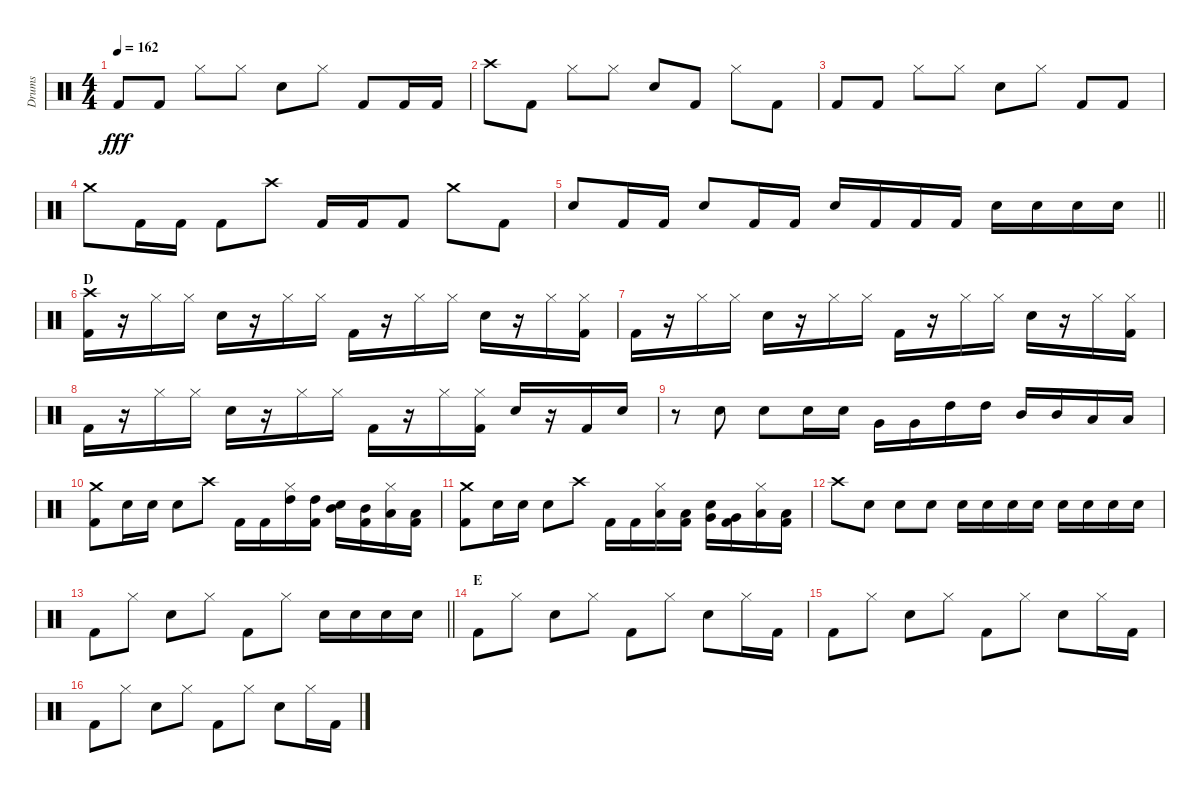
\track ("Drums" "Drums") {instrument percussion}
\staff {score}
\articulation defaults
\ts (4 4)
\tempo 162
\clef neutral
\ks c "Kick (hit) 2".8{dy fff} "Kick (hit) 2".8 "Hi-Hat (closed)".8 "Hi-Hat (closed)".8 "Electric Snare (hit)".8 "Hi-Hat (closed)".8 "Kick (hit) 2".8 "Kick (hit) 2".16 "Kick (hit) 2".16
|
"Crash high (hit)".8 "Kick (hit) 2".8 "Hi-Hat (closed)".8 "Hi-Hat (closed)".8 "Electric Snare (hit)".8 "Kick (hit) 2".8 "Hi-Hat (closed)".8 "Kick (hit) 2".8 |
"Kick (hit) 2".8 "Kick (hit) 2".8 "Hi-Hat (closed)".8 "Hi-Hat (closed)".8 "Electric Snare (hit)".8 "Hi-Hat (closed)".8 "Kick (hit) 2".8 "Kick (hit) 2".8 |
"Crash medium (hit)".8 "Kick (hit) 2".16 "Kick (hit) 2".16 "Kick (hit) 2".8 "Crash high (hit)".8 "Kick (hit) 2".16 "Kick (hit) 2".16 "Kick (hit) 2".8 "Crash medium (hit)".8 "Kick (hit) 2".8 |
\barLineRight lightlight "Electric Snare (hit)".8 "Kick (hit) 2".16 "Kick (hit) 2".16 "Electric Snare (hit)".8 "Kick (hit) 2".16 "Kick (hit) 2".16 "Electric Snare (hit)".16 "Kick (hit) 2".16 "Kick (hit) 2".16 "Kick (hit) 2".16 "Electric Snare (hit)".16 "Electric Snare (hit)".16 "Electric Snare (hit)".16 "Electric Snare (hit)".16
|
\section ("" "D")
("Crash high (hit)" "Kick (hit) 2").16 r.16 "Hi-Hat (closed)".16 "Hi-Hat (closed)".16 "Electric Snare (hit)".16 r.16 "Hi-Hat (closed)".16 "Hi-Hat (closed)".16 "Kick (hit) 2".16 r.16 "Hi-Hat (closed)".16 "Hi-Hat (closed)".16 "Electric Snare (hit)".16 r.16 "Hi-Hat (closed)".16 ("Hi-Hat (closed)" "Kick (hit) 2").16 |
"Kick (hit) 2".16 r.16 "Hi-Hat (closed)".16 "Hi-Hat (closed)".16 "Electric Snare (hit)".16 r.16 "Hi-Hat (closed)".16 "Hi-Hat (closed)".16 "Kick (hit) 2".16 r.16 "Hi-Hat (closed)".16 "Hi-Hat (closed)".16 "Electric Snare (hit)".16 r.16 "Hi-Hat (closed)".16 ("Hi-Hat (closed)" "Kick (hit) 2").16 |
"Kick (hit) 2".16 r.16 "Hi-Hat (closed)".16 "Hi-Hat (closed)".16 "Electric Snare (hit)".16 r.16 "Hi-Hat (closed)".16 "Hi-Hat (closed)".16 "Kick (hit) 2".16 r.16 "Hi-Hat (closed)".16 ("Hi-Hat (closed)" "Kick (hit) 2").16 "Electric Snare (hit)".16 r.16 "Kick (hit) 2".16 "Electric Snare (hit)".16 |
r.8 "Electric Snare (hit)".8 "Electric Snare (hit)".8 "Electric Snare (hit)".16 "Electric Snare (hit)".16 "Very Low Tom (hit)".16 "Very Low Tom (hit)".16 "High Tom (hit)".16 "High Tom (hit)".16 "Mid Tom (hit)".16 "Mid Tom (hit)".16 "Low Tom (hit)".16 "Low Tom (hit)".16 |
("Crash medium (hit)" "Kick (hit) 2").8 "Electric Snare (hit)".16 "Electric Snare (hit)".16 "Electric Snare (hit)".8 "Crash high (hit)".8 "Kick (hit) 2".16 "Kick (hit) 2".16 ("Hi-Hat (closed)" "High Tom (hit)").16 ("High Tom (hit)" "Kick (hit) 2").16 ("Mid Tom (hit)" "Electric Snare (hit)").16 ("Mid Tom (hit)" "Kick (hit) 2").16 ("Hi-Hat (closed)" "Low Tom (hit)").16 ("Low Tom (hit)" "Kick (hit) 2").16 |
("Crash medium (hit)" "Kick (hit) 2").8 "Electric Snare (hit)".16 "Electric Snare (hit)".16 "Electric Snare (hit)".8 "Crash high (hit)".8 "Kick (hit) 2".16 "Kick (hit) 2".16 ("Hi-Hat (closed)" "Low Tom (hit)").16 ("Low Tom (hit)" "Kick (hit) 2").16 ("Very Low Tom (hit)" "Electric Snare (hit)").16 ("Very Low Tom (hit)" "Kick (hit) 2").16 ("Hi-Hat (closed)" "Low Floor Tom (hit)").16 ("Low Floor Tom (hit)" "Kick (hit) 2").16 |
"Crash high (hit)".8 "Electric Snare (hit)".8 "Electric Snare (hit)".8 "Electric Snare (hit)".8 "Electric Snare (hit)".16 "Electric Snare (hit)".16 "Electric Snare (hit)".16 "Electric Snare (hit)".16 "Electric Snare (hit)".16 "Electric Snare (hit)".16 "Electric Snare (hit)".16 "Electric Snare (hit)".16 |
\barLineRight lightlight "Kick (hit) 2".8 "Hi-Hat (closed)".8 "Electric Snare (hit)".8 "Hi-Hat (closed)".8 "Kick (hit) 2".8 "Hi-Hat (closed)".8 "Electric Snare (hit)".16 "Electric Snare (hit)".16 "Electric Snare (hit)".16 "Electric Snare (hit)".16
|
\section ("" "E")
"Kick (hit) 2".8 "Hi-Hat (closed)".8 "Electric Snare (hit)".8 "Hi-Hat (closed)".8 "Kick (hit) 2".8 "Hi-Hat (closed)".8 "Electric Snare (hit)".8 "Hi-Hat (closed)".16 "Kick (hit) 2".16 |
"Kick (hit) 2".8 "Hi-Hat (closed)".8 "Electric Snare (hit)".8 "Hi-Hat (closed)".8 "Kick (hit) 2".8 "Hi-Hat (closed)".8 "Electric Snare (hit)".8 "Hi-Hat (closed)".16 "Kick (hit) 2".16 |
"Kick (hit) 2".8 "Hi-Hat (closed)".8 "Electric Snare (hit)".8 "Hi-Hat (closed)".8 "Kick (hit) 2".8 "Hi-Hat (closed)".8 "Electric Snare (hit)".8 "Hi-Hat (closed)".16 "Kick (hit) 2".16
